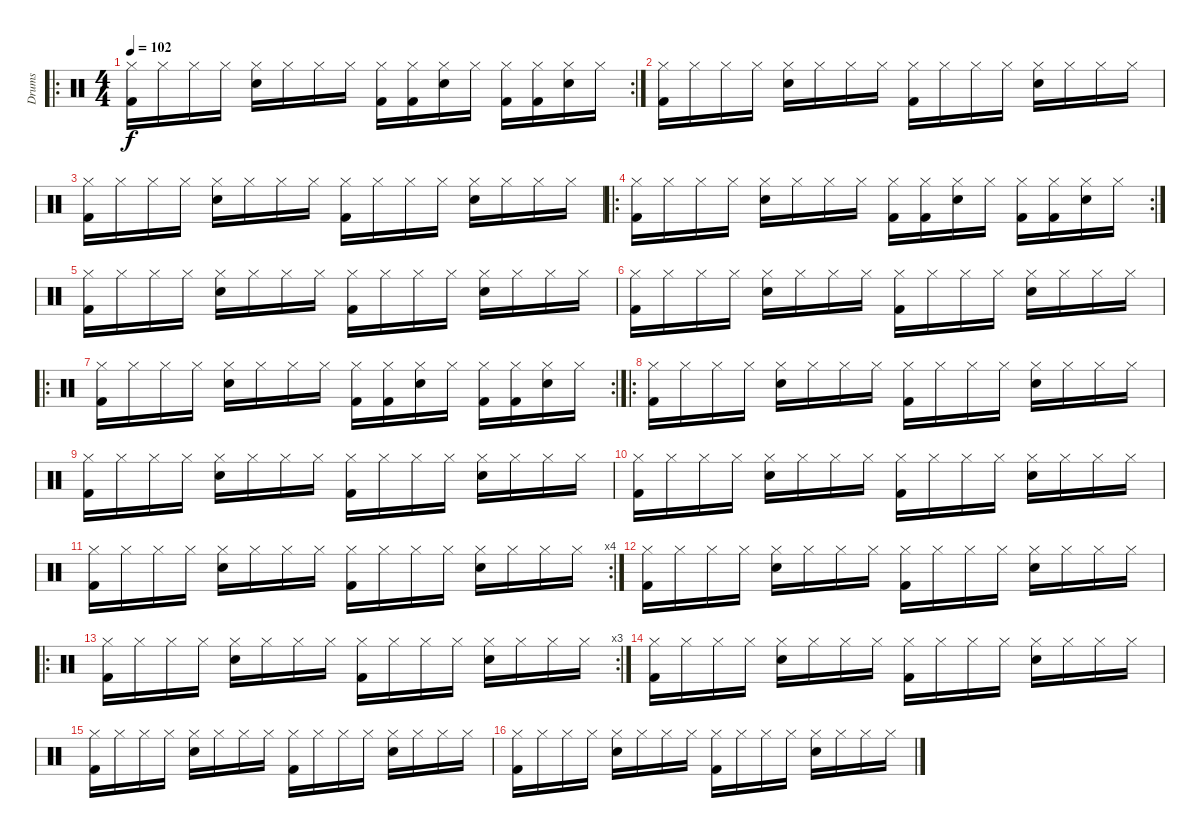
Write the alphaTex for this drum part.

\track ("Drums" "Drums") {instrument percussion}
\staff {score}
\articulation defaults
\ro
\rc 2
\ts (4 4)
\tempo 102
\clef neutral
\ks c
("Hi-Hat (closed)" "Kick (hit) 2").16{dy f} "Hi-Hat (closed)".16 "Hi-Hat (closed)".16 "Hi-Hat (closed)".16 ("Hi-Hat (closed)" "Electric Snare (hit)").16 "Hi-Hat (closed)".16 "Hi-Hat (closed)".16 "Hi-Hat (closed)".16 ("Hi-Hat (closed)" "Kick (hit) 2").16 ("Hi-Hat (closed)" "Kick (hit) 2").16 ("Hi-Hat (closed)" "Electric Snare (hit)").16 "Hi-Hat (closed)".16 ("Hi-Hat (closed)" "Kick (hit) 2").16 ("Hi-Hat (closed)" "Kick (hit) 2").16 ("Hi-Hat (closed)" "Electric Snare (hit)").16 "Hi-Hat (closed)".16 |
("Hi-Hat (closed)" "Kick (hit) 2").16 "Hi-Hat (closed)".16 "Hi-Hat (closed)".16 "Hi-Hat (closed)".16 ("Hi-Hat (closed)" "Electric Snare (hit)").16 "Hi-Hat (closed)".16 "Hi-Hat (closed)".16 "Hi-Hat (closed)".16 ("Hi-Hat (closed)" "Kick (hit) 2").16 "Hi-Hat (closed)".16 "Hi-Hat (closed)".16 "Hi-Hat (closed)".16 ("Hi-Hat (closed)" "Electric Snare (hit)").16 "Hi-Hat (closed)".16 "Hi-Hat (closed)".16 "Hi-Hat (closed)".16 |
("Hi-Hat (closed)" "Kick (hit) 2").16 "Hi-Hat (closed)".16 "Hi-Hat (closed)".16 "Hi-Hat (closed)".16 ("Hi-Hat (closed)" "Electric Snare (hit)").16 "Hi-Hat (closed)".16 "Hi-Hat (closed)".16 "Hi-Hat (closed)".16 ("Hi-Hat (closed)" "Kick (hit) 2").16 "Hi-Hat (closed)".16 "Hi-Hat (closed)".16 "Hi-Hat (closed)".16 ("Hi-Hat (closed)" "Electric Snare (hit)").16 "Hi-Hat (closed)".16 "Hi-Hat (closed)".16 "Hi-Hat (closed)".16 |
\ro
\rc 2
("Hi-Hat (closed)" "Kick (hit) 2").16 "Hi-Hat (closed)".16 "Hi-Hat (closed)".16 "Hi-Hat (closed)".16 ("Hi-Hat (closed)" "Electric Snare (hit)").16 "Hi-Hat (closed)".16 "Hi-Hat (closed)".16 "Hi-Hat (closed)".16 ("Hi-Hat (closed)" "Kick (hit) 2").16 ("Hi-Hat (closed)" "Kick (hit) 2").16 ("Hi-Hat (closed)" "Electric Snare (hit)").16 "Hi-Hat (closed)".16 ("Hi-Hat (closed)" "Kick (hit) 2").16 ("Hi-Hat (closed)" "Kick (hit) 2").16 ("Hi-Hat (closed)" "Electric Snare (hit)").16 "Hi-Hat (closed)".16 |
("Hi-Hat (closed)" "Kick (hit) 2").16 "Hi-Hat (closed)".16 "Hi-Hat (closed)".16 "Hi-Hat (closed)".16 ("Hi-Hat (closed)" "Electric Snare (hit)").16 "Hi-Hat (closed)".16 "Hi-Hat (closed)".16 "Hi-Hat (closed)".16 ("Hi-Hat (closed)" "Kick (hit) 2").16 "Hi-Hat (closed)".16 "Hi-Hat (closed)".16 "Hi-Hat (closed)".16 ("Hi-Hat (closed)" "Electric Snare (hit)").16 "Hi-Hat (closed)".16 "Hi-Hat (closed)".16 "Hi-Hat (closed)".16 |
("Hi-Hat (closed)" "Kick (hit) 2").16 "Hi-Hat (closed)".16 "Hi-Hat (closed)".16 "Hi-Hat (closed)".16 ("Hi-Hat (closed)" "Electric Snare (hit)").16 "Hi-Hat (closed)".16 "Hi-Hat (closed)".16 "Hi-Hat (closed)".16 ("Hi-Hat (closed)" "Kick (hit) 2").16 "Hi-Hat (closed)".16 "Hi-Hat (closed)".16 "Hi-Hat (closed)".16 ("Hi-Hat (closed)" "Electric Snare (hit)").16 "Hi-Hat (closed)".16 "Hi-Hat (closed)".16 "Hi-Hat (closed)".16 |
\ro
\rc 2
("Hi-Hat (closed)" "Kick (hit) 2").16 "Hi-Hat (closed)".16 "Hi-Hat (closed)".16 "Hi-Hat (closed)".16 ("Hi-Hat (closed)" "Electric Snare (hit)").16 "Hi-Hat (closed)".16 "Hi-Hat (closed)".16 "Hi-Hat (closed)".16 ("Hi-Hat (closed)" "Kick (hit) 2").16 ("Hi-Hat (closed)" "Kick (hit) 2").16 ("Hi-Hat (closed)" "Electric Snare (hit)").16 "Hi-Hat (closed)".16 ("Hi-Hat (closed)" "Kick (hit) 2").16 ("Hi-Hat (closed)" "Kick (hit) 2").16 ("Hi-Hat (closed)" "Electric Snare (hit)").16 "Hi-Hat (closed)".16 |
\ro
("Hi-Hat (closed)" "Kick (hit) 2").16 "Hi-Hat (closed)".16 "Hi-Hat (closed)".16 "Hi-Hat (closed)".16 ("Hi-Hat (closed)" "Electric Snare (hit)").16 "Hi-Hat (closed)".16 "Hi-Hat (closed)".16 "Hi-Hat (closed)".16 ("Hi-Hat (closed)" "Kick (hit) 2").16 "Hi-Hat (closed)".16 "Hi-Hat (closed)".16 "Hi-Hat (closed)".16 ("Hi-Hat (closed)" "Electric Snare (hit)").16 "Hi-Hat (closed)".16 "Hi-Hat (closed)".16 "Hi-Hat (closed)".16 |
("Hi-Hat (closed)" "Kick (hit) 2").16 "Hi-Hat (closed)".16 "Hi-Hat (closed)".16 "Hi-Hat (closed)".16 ("Hi-Hat (closed)" "Electric Snare (hit)").16 "Hi-Hat (closed)".16 "Hi-Hat (closed)".16 "Hi-Hat (closed)".16 ("Hi-Hat (closed)" "Kick (hit) 2").16 "Hi-Hat (closed)".16 "Hi-Hat (closed)".16 "Hi-Hat (closed)".16 ("Hi-Hat (closed)" "Electric Snare (hit)").16 "Hi-Hat (closed)".16 "Hi-Hat (closed)".16 "Hi-Hat (closed)".16 |
("Hi-Hat (closed)" "Kick (hit) 2").16 "Hi-Hat (closed)".16 "Hi-Hat (closed)".16 "Hi-Hat (closed)".16 ("Hi-Hat (closed)" "Electric Snare (hit)").16 "Hi-Hat (closed)".16 "Hi-Hat (closed)".16 "Hi-Hat (closed)".16 ("Hi-Hat (closed)" "Kick (hit) 2").16 "Hi-Hat (closed)".16 "Hi-Hat (closed)".16 "Hi-Hat (closed)".16 ("Hi-Hat (closed)" "Electric Snare (hit)").16 "Hi-Hat (closed)".16 "Hi-Hat (closed)".16 "Hi-Hat (closed)".16 |
\rc 4
("Hi-Hat (closed)" "Kick (hit) 2").16 "Hi-Hat (closed)".16 "Hi-Hat (closed)".16 "Hi-Hat (closed)".16 ("Hi-Hat (closed)" "Electric Snare (hit)").16 "Hi-Hat (closed)".16 "Hi-Hat (closed)".16 "Hi-Hat (closed)".16 ("Hi-Hat (closed)" "Kick (hit) 2").16 "Hi-Hat (closed)".16 "Hi-Hat (closed)".16 "Hi-Hat (closed)".16 ("Hi-Hat (closed)" "Electric Snare (hit)").16 "Hi-Hat (closed)".16 "Hi-Hat (closed)".16 "Hi-Hat (closed)".16 |
("Hi-Hat (closed)" "Kick (hit) 2").16 "Hi-Hat (closed)".16 "Hi-Hat (closed)".16 "Hi-Hat (closed)".16 ("Hi-Hat (closed)" "Electric Snare (hit)").16 "Hi-Hat (closed)".16 "Hi-Hat (closed)".16 "Hi-Hat (closed)".16 ("Hi-Hat (closed)" "Kick (hit) 2").16 "Hi-Hat (closed)".16 "Hi-Hat (closed)".16 "Hi-Hat (closed)".16 ("Hi-Hat (closed)" "Electric Snare (hit)").16 "Hi-Hat (closed)".16 "Hi-Hat (closed)".16 "Hi-Hat (closed)".16 |
\ro
\rc 3
("Hi-Hat (closed)" "Kick (hit) 2").16 "Hi-Hat (closed)".16 "Hi-Hat (closed)".16 "Hi-Hat (closed)".16 ("Hi-Hat (closed)" "Electric Snare (hit)").16 "Hi-Hat (closed)".16 "Hi-Hat (closed)".16 "Hi-Hat (closed)".16 ("Hi-Hat (closed)" "Kick (hit) 2").16 "Hi-Hat (closed)".16 "Hi-Hat (closed)".16 "Hi-Hat (closed)".16 ("Hi-Hat (closed)" "Electric Snare (hit)").16 "Hi-Hat (closed)".16 "Hi-Hat (closed)".16 "Hi-Hat (closed)".16 |
("Hi-Hat (closed)" "Kick (hit) 2").16 "Hi-Hat (closed)".16 "Hi-Hat (closed)".16 "Hi-Hat (closed)".16 ("Hi-Hat (closed)" "Electric Snare (hit)").16 "Hi-Hat (closed)".16 "Hi-Hat (closed)".16 "Hi-Hat (closed)".16 ("Hi-Hat (closed)" "Kick (hit) 2").16 "Hi-Hat (closed)".16 "Hi-Hat (closed)".16 "Hi-Hat (closed)".16 ("Hi-Hat (closed)" "Electric Snare (hit)").16 "Hi-Hat (closed)".16 "Hi-Hat (closed)".16 "Hi-Hat (closed)".16 |
("Hi-Hat (closed)" "Kick (hit) 2").16 "Hi-Hat (closed)".16 "Hi-Hat (closed)".16 "Hi-Hat (closed)".16 ("Hi-Hat (closed)" "Electric Snare (hit)").16 "Hi-Hat (closed)".16 "Hi-Hat (closed)".16 "Hi-Hat (closed)".16 ("Hi-Hat (closed)" "Kick (hit) 2").16 "Hi-Hat (closed)".16 "Hi-Hat (closed)".16 "Hi-Hat (closed)".16 ("Hi-Hat (closed)" "Electric Snare (hit)").16 "Hi-Hat (closed)".16 "Hi-Hat (closed)".16 "Hi-Hat (closed)".16 |
("Hi-Hat (closed)" "Kick (hit) 2").16 "Hi-Hat (closed)".16 "Hi-Hat (closed)".16 "Hi-Hat (closed)".16 ("Hi-Hat (closed)" "Electric Snare (hit)").16 "Hi-Hat (closed)".16 "Hi-Hat (closed)".16 "Hi-Hat (closed)".16 ("Hi-Hat (closed)" "Kick (hit) 2").16 "Hi-Hat (closed)".16 "Hi-Hat (closed)".16 "Hi-Hat (closed)".16 ("Hi-Hat (closed)" "Electric Snare (hit)").16 "Hi-Hat (closed)".16 "Hi-Hat (closed)".16 "Hi-Hat (closed)".16
